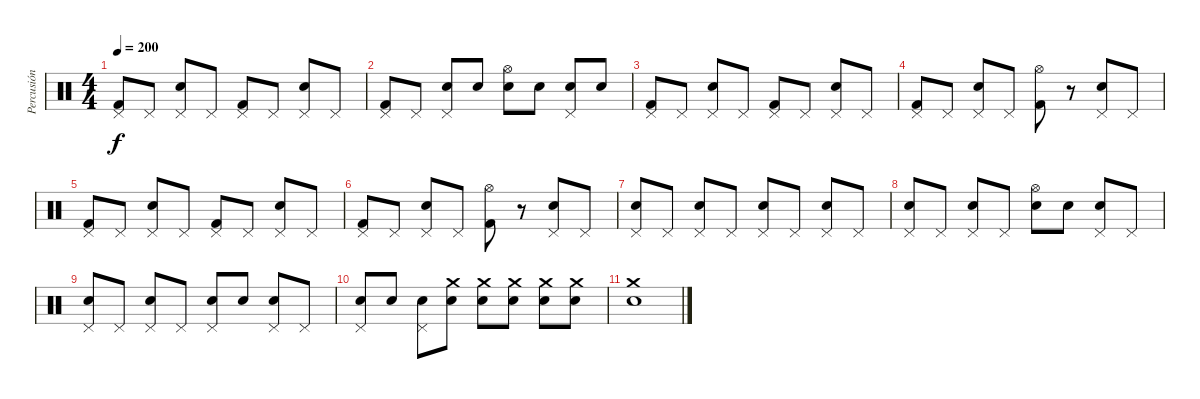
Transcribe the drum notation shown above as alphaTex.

\track ("Percusión" "Percusión") {instrument percussion}
\staff {score}
\articulation defaults
\ts (4 4)
\tempo 200
\clef neutral
\ks c
("Kick (hit) 2" "Pedal Hi-Hat (hit)").8{dy f} "Pedal Hi-Hat (hit)".8 ("Electric Snare (hit)" "Pedal Hi-Hat (hit)").8 "Pedal Hi-Hat (hit)".8 ("Kick (hit) 2" "Pedal Hi-Hat (hit)").8 "Pedal Hi-Hat (hit)".8 ("Electric Snare (hit)" "Pedal Hi-Hat (hit)").8 "Pedal Hi-Hat (hit)".8 |
("Kick (hit) 2" "Pedal Hi-Hat (hit)").8 "Pedal Hi-Hat (hit)".8 ("Electric Snare (hit)" "Pedal Hi-Hat (hit)").8 "Electric Snare (hit)".8 ("Electric Snare (hit)" "Hi-Hat (open)").8 "Electric Snare (hit)".8 ("Electric Snare (hit)" "Pedal Hi-Hat (hit)").8 "Electric Snare (hit)".8 |
("Kick (hit) 2" "Pedal Hi-Hat (hit)").8 "Pedal Hi-Hat (hit)".8 ("Electric Snare (hit)" "Pedal Hi-Hat (hit)").8 "Pedal Hi-Hat (hit)".8 ("Kick (hit) 2" "Pedal Hi-Hat (hit)").8 "Pedal Hi-Hat (hit)".8 ("Electric Snare (hit)" "Pedal Hi-Hat (hit)").8 "Pedal Hi-Hat (hit)".8 |
("Kick (hit) 2" "Pedal Hi-Hat (hit)").8 "Pedal Hi-Hat (hit)".8 ("Electric Snare (hit)" "Pedal Hi-Hat (hit)").8 "Pedal Hi-Hat (hit)".8 ("Kick (hit) 2" "Hi-Hat (open)").8 r.8 ("Electric Snare (hit)" "Pedal Hi-Hat (hit)").8 "Pedal Hi-Hat (hit)".8 |
("Kick (hit) 2" "Pedal Hi-Hat (hit)").8 "Pedal Hi-Hat (hit)".8 ("Electric Snare (hit)" "Pedal Hi-Hat (hit)").8 "Pedal Hi-Hat (hit)".8 ("Kick (hit) 2" "Pedal Hi-Hat (hit)").8 "Pedal Hi-Hat (hit)".8 ("Electric Snare (hit)" "Pedal Hi-Hat (hit)").8 "Pedal Hi-Hat (hit)".8 |
("Kick (hit) 2" "Pedal Hi-Hat (hit)").8 "Pedal Hi-Hat (hit)".8 ("Electric Snare (hit)" "Pedal Hi-Hat (hit)").8 "Pedal Hi-Hat (hit)".8 ("Kick (hit) 2" "Hi-Hat (open)").8 r.8 ("Electric Snare (hit)" "Pedal Hi-Hat (hit)").8 "Pedal Hi-Hat (hit)".8 |
("Electric Snare (hit)" "Pedal Hi-Hat (hit)").8 "Pedal Hi-Hat (hit)".8 ("Electric Snare (hit)" "Pedal Hi-Hat (hit)").8 "Pedal Hi-Hat (hit)".8 ("Electric Snare (hit)" "Pedal Hi-Hat (hit)").8 "Pedal Hi-Hat (hit)".8 ("Electric Snare (hit)" "Pedal Hi-Hat (hit)").8 "Pedal Hi-Hat (hit)".8 |
("Electric Snare (hit)" "Pedal Hi-Hat (hit)").8 "Pedal Hi-Hat (hit)".8 ("Electric Snare (hit)" "Pedal Hi-Hat (hit)").8 "Pedal Hi-Hat (hit)".8 ("Electric Snare (hit)" "Hi-Hat (open)").8 "Electric Snare (hit)".8 ("Electric Snare (hit)" "Pedal Hi-Hat (hit)").8 "Pedal Hi-Hat (hit)".8 |
("Electric Snare (hit)" "Pedal Hi-Hat (hit)").8 "Pedal Hi-Hat (hit)".8 ("Electric Snare (hit)" "Pedal Hi-Hat (hit)").8 "Pedal Hi-Hat (hit)".8 ("Electric Snare (hit)" "Pedal Hi-Hat (hit)").8 "Electric Snare (hit)".8 ("Electric Snare (hit)" "Pedal Hi-Hat (hit)").8 "Pedal Hi-Hat (hit)".8 |
("Electric Snare (hit)" "Pedal Hi-Hat (hit)").8 "Electric Snare (hit)".8 ("Electric Snare (hit)" "Pedal Hi-Hat (hit)").8 ("Electric Snare (hit)" "Crash medium (hit)").8 ("Electric Snare (hit)" "Crash medium (hit)").8 ("Electric Snare (hit)" "Crash medium (hit)").8 ("Electric Snare (hit)" "Crash medium (hit)").8 ("Electric Snare (hit)" "Crash medium (hit)").8 |
("Electric Snare (hit)" "Crash medium (hit)").1
